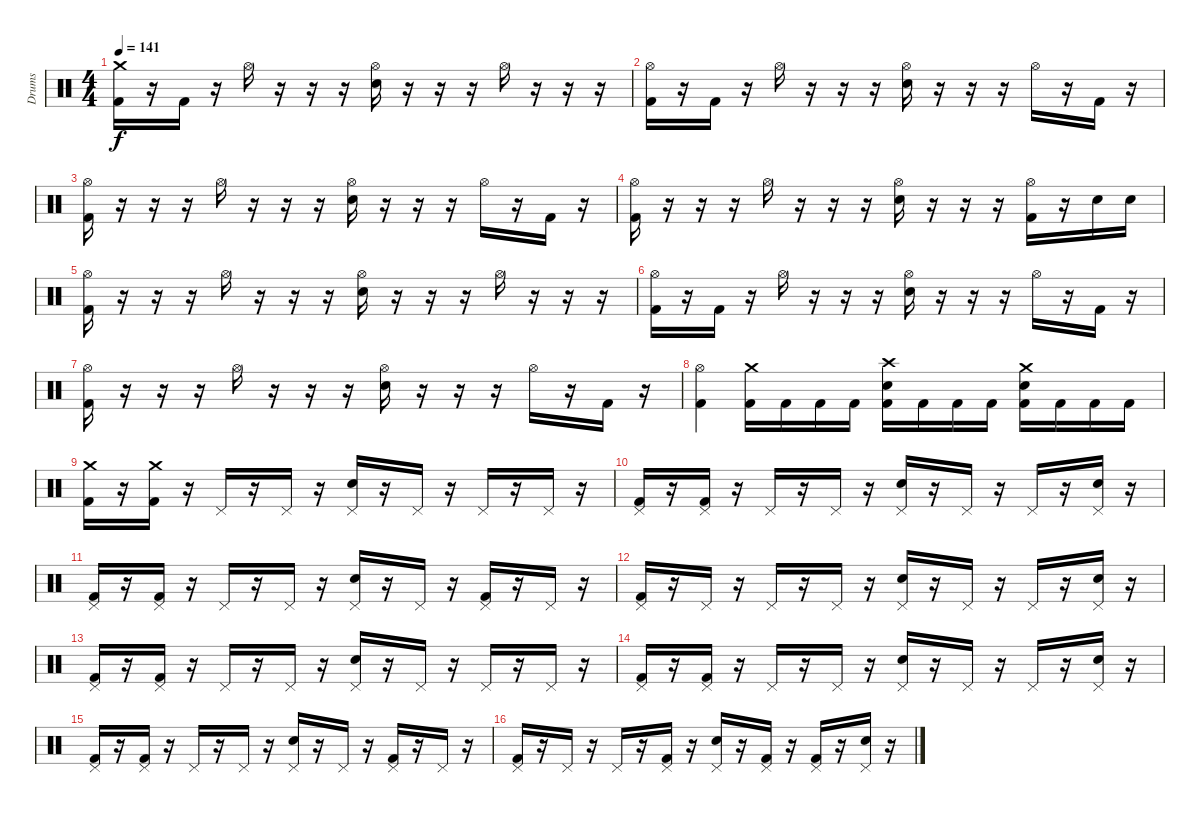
\track ("Drums" "Drums") {instrument percussion}
\staff {score}
\articulation defaults
\ts (4 4)
\tempo 141
\clef neutral
\ks c
("Crash medium (hit)" "Kick (hit) 2").16{dy f} r.16 "Kick (hit) 2".16 r.16 "Hi-Hat (open)".16 r.16 r.16 r.16 ("Hi-Hat (open)" "Electric Snare (hit)").16 r.16 r.16 r.16 "Hi-Hat (open)".16 r.16 r.16 r.16 |
("Hi-Hat (open)" "Kick (hit) 2").16 r.16 "Kick (hit) 2".16 r.16 "Hi-Hat (open)".16 r.16 r.16 r.16 ("Hi-Hat (open)" "Electric Snare (hit)").16 r.16 r.16 r.16 "Hi-Hat (open)".16 r.16 "Kick (hit) 2".16 r.16 |
("Hi-Hat (open)" "Kick (hit) 2").16 r.16 r.16 r.16 "Hi-Hat (open)".16 r.16 r.16 r.16 ("Hi-Hat (open)" "Electric Snare (hit)").16 r.16 r.16 r.16 "Hi-Hat (open)".16 r.16 "Kick (hit) 2".16 r.16 |
("Hi-Hat (open)" "Kick (hit) 2").16 r.16 r.16 r.16 "Hi-Hat (open)".16 r.16 r.16 r.16 ("Hi-Hat (open)" "Electric Snare (hit)").16 r.16 r.16 r.16 ("Hi-Hat (open)" "Kick (hit) 2").16 r.16 "Electric Snare (hit)".16 "Electric Snare (hit)".16 |
("Hi-Hat (open)" "Kick (hit) 2").16 r.16 r.16 r.16 "Hi-Hat (open)".16 r.16 r.16 r.16 ("Hi-Hat (open)" "Electric Snare (hit)").16 r.16 r.16 r.16 "Hi-Hat (open)".16 r.16 r.16 r.16 |
("Hi-Hat (open)" "Kick (hit) 2").16 r.16 "Kick (hit) 2".16 r.16 "Hi-Hat (open)".16 r.16 r.16 r.16 ("Hi-Hat (open)" "Electric Snare (hit)").16 r.16 r.16 r.16 "Hi-Hat (open)".16 r.16 "Kick (hit) 2".16 r.16 |
("Hi-Hat (open)" "Kick (hit) 2").16 r.16 r.16 r.16 "Hi-Hat (open)".16 r.16 r.16 r.16 ("Hi-Hat (open)" "Electric Snare (hit)").16 r.16 r.16 r.16 "Hi-Hat (open)".16 r.16 "Kick (hit) 2".16 r.16 |
("Hi-Hat (open)" "Kick (hit) 2").4 ("Crash medium (hit)" "Kick (hit) 2").16 "Kick (hit) 2".16 "Kick (hit) 2".16 "Kick (hit) 2".16 ("Crash high (hit)" "Electric Snare (hit)" "Kick (hit) 2").16 "Kick (hit) 2".16 "Kick (hit) 2".16 "Kick (hit) 2".16 ("Crash medium (hit)" "Electric Snare (hit)" "Kick (hit) 2").16 "Kick (hit) 2".16 "Kick (hit) 2".16 "Kick (hit) 2".16 |
\section ("" "")
("Crash medium (hit)" "Kick (hit) 2").16 r.16 ("Crash medium (hit)" "Kick (hit) 2").16 r.16 "Pedal Hi-Hat (hit)".16 r.16 "Pedal Hi-Hat (hit)".16 r.16 ("Pedal Hi-Hat (hit)" "Electric Snare (hit)").16 r.16 "Pedal Hi-Hat (hit)".16 r.16 "Pedal Hi-Hat (hit)".16 r.16 "Pedal Hi-Hat (hit)".16 r.16 |
("Pedal Hi-Hat (hit)" "Kick (hit) 2").16 r.16 ("Pedal Hi-Hat (hit)" "Kick (hit) 2").16 r.16 "Pedal Hi-Hat (hit)".16 r.16 "Pedal Hi-Hat (hit)".16 r.16 ("Pedal Hi-Hat (hit)" "Electric Snare (hit)").16 r.16 "Pedal Hi-Hat (hit)".16 r.16 "Pedal Hi-Hat (hit)".16 r.16 ("Pedal Hi-Hat (hit)" "Electric Snare (hit)").16 r.16 |
("Pedal Hi-Hat (hit)" "Kick (hit) 2").16 r.16 ("Pedal Hi-Hat (hit)" "Kick (hit) 2").16 r.16 "Pedal Hi-Hat (hit)".16 r.16 "Pedal Hi-Hat (hit)".16 r.16 ("Pedal Hi-Hat (hit)" "Electric Snare (hit)").16 r.16 "Pedal Hi-Hat (hit)".16 r.16 ("Pedal Hi-Hat (hit)" "Kick (hit) 2").16 r.16 "Pedal Hi-Hat (hit)".16 r.16 |
("Pedal Hi-Hat (hit)" "Kick (hit) 2").16 r.16 "Pedal Hi-Hat (hit)".16 r.16 "Pedal Hi-Hat (hit)".16 r.16 "Pedal Hi-Hat (hit)".16 r.16 ("Pedal Hi-Hat (hit)" "Electric Snare (hit)").16 r.16 "Pedal Hi-Hat (hit)".16 r.16 "Pedal Hi-Hat (hit)".16 r.16 ("Pedal Hi-Hat (hit)" "Electric Snare (hit)").16 r.16 |
("Pedal Hi-Hat (hit)" "Kick (hit) 2").16 r.16 ("Pedal Hi-Hat (hit)" "Kick (hit) 2").16 r.16 "Pedal Hi-Hat (hit)".16 r.16 "Pedal Hi-Hat (hit)".16 r.16 ("Pedal Hi-Hat (hit)" "Electric Snare (hit)").16 r.16 "Pedal Hi-Hat (hit)".16 r.16 "Pedal Hi-Hat (hit)".16 r.16 "Pedal Hi-Hat (hit)".16 r.16 |
("Pedal Hi-Hat (hit)" "Kick (hit) 2").16 r.16 ("Pedal Hi-Hat (hit)" "Kick (hit) 2").16 r.16 "Pedal Hi-Hat (hit)".16 r.16 "Pedal Hi-Hat (hit)".16 r.16 ("Pedal Hi-Hat (hit)" "Electric Snare (hit)").16 r.16 "Pedal Hi-Hat (hit)".16 r.16 "Pedal Hi-Hat (hit)".16 r.16 ("Pedal Hi-Hat (hit)" "Electric Snare (hit)").16 r.16 |
("Pedal Hi-Hat (hit)" "Kick (hit) 2").16 r.16 ("Pedal Hi-Hat (hit)" "Kick (hit) 2").16 r.16 "Pedal Hi-Hat (hit)".16 r.16 "Pedal Hi-Hat (hit)".16 r.16 ("Pedal Hi-Hat (hit)" "Electric Snare (hit)").16 r.16 "Pedal Hi-Hat (hit)".16 r.16 ("Pedal Hi-Hat (hit)" "Kick (hit) 2").16 r.16 "Pedal Hi-Hat (hit)".16 r.16 |
("Pedal Hi-Hat (hit)" "Kick (hit) 2").16 r.16 "Pedal Hi-Hat (hit)".16 r.16 "Pedal Hi-Hat (hit)".16 r.16 ("Pedal Hi-Hat (hit)" "Kick (hit) 2").16 r.16 ("Pedal Hi-Hat (hit)" "Electric Snare (hit)").16 r.16 ("Pedal Hi-Hat (hit)" "Kick (hit) 2").16 r.16 ("Pedal Hi-Hat (hit)" "Kick (hit) 2").16 r.16 ("Pedal Hi-Hat (hit)" "Electric Snare (hit)").16 r.16
